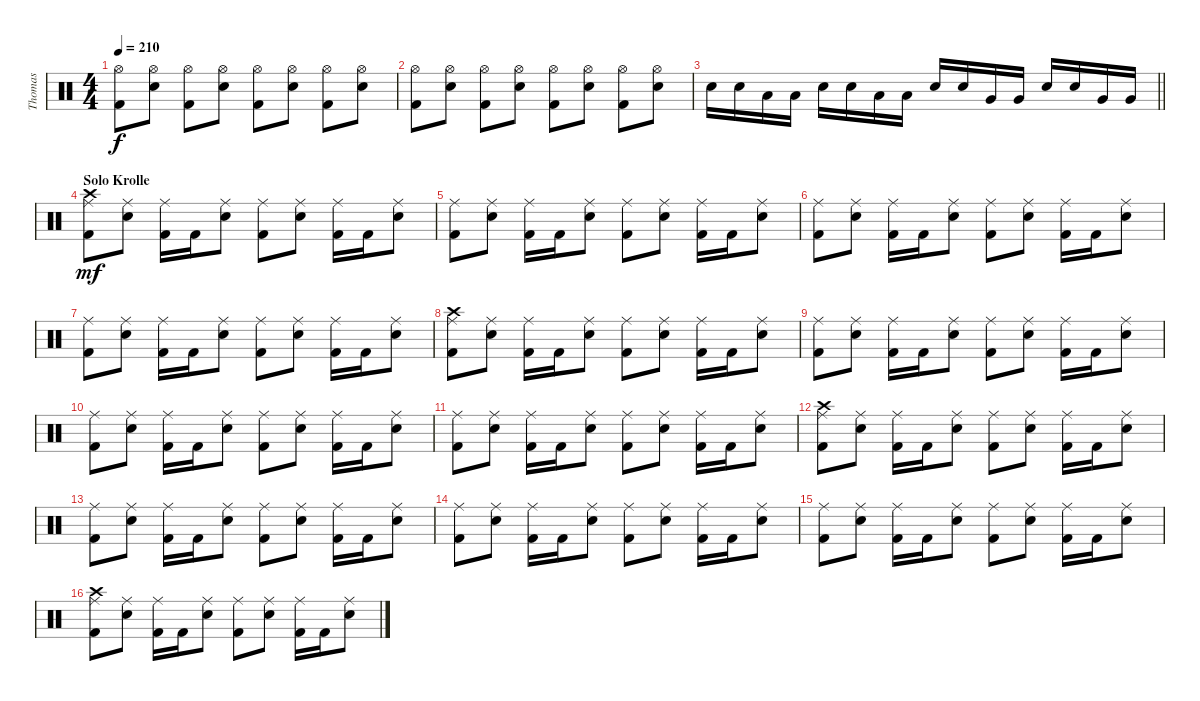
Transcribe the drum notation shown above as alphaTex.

\track ("Thomas" "Thomas") {instrument percussion}
\staff {score}
\articulation defaults
\ts (4 4)
\tempo 210
\clef neutral
\ks c
("Hi-Hat (open)" "Kick (hit) 2").8{dy f} ("Hi-Hat (open)" "Snare (hit) 2").8 ("Hi-Hat (open)" "Kick (hit) 2").8 ("Hi-Hat (open)" "Snare (hit) 2").8 ("Hi-Hat (open)" "Kick (hit) 2").8 ("Hi-Hat (open)" "Snare (hit) 2").8 ("Hi-Hat (open)" "Kick (hit) 2").8 ("Hi-Hat (open)" "Snare (hit) 2").8 |
("Hi-Hat (open)" "Kick (hit) 2").8 ("Hi-Hat (open)" "Snare (hit) 2").8 ("Hi-Hat (open)" "Kick (hit) 2").8 ("Hi-Hat (open)" "Snare (hit) 2").8 ("Hi-Hat (open)" "Kick (hit) 2").8 ("Hi-Hat (open)" "Snare (hit) 2").8 ("Hi-Hat (open)" "Kick (hit) 2").8 ("Hi-Hat (open)" "Snare (hit) 2").8 |
\barLineRight lightlight "Snare (hit) 2".16 "Snare (hit) 2".16 "Low Floor Tom (hit)".16 "Low Floor Tom (hit)".16 "Snare (hit) 2".16 "Snare (hit) 2".16 "Low Floor Tom (hit)".16 "Low Floor Tom (hit)".16 "Snare (hit) 2".16 "Snare (hit) 2".16 "Very Low Tom (hit)".16 "Very Low Tom (hit)".16 "Snare (hit) 2".16 "Snare (hit) 2".16 "Very Low Tom (hit)".16 "Very Low Tom (hit)".16
|
\section ("" "Solo Krolle")
("Ride (middle)" "Crash high (hit)" "Kick (hit) 2").8{dy mf} ("Ride (middle)" "Snare (hit) 2").8 ("Ride (middle)" "Kick (hit) 2").16 "Kick (hit) 2".16 ("Ride (middle)" "Snare (hit) 2").8 ("Ride (middle)" "Kick (hit) 2").8 ("Ride (middle)" "Snare (hit) 2").8 ("Ride (middle)" "Kick (hit) 2").16 "Kick (hit) 2".16 ("Ride (middle)" "Snare (hit) 2").8 |
("Ride (middle)" "Kick (hit) 2").8 ("Ride (middle)" "Snare (hit) 2").8 ("Ride (middle)" "Kick (hit) 2").16 "Kick (hit) 2".16 ("Ride (middle)" "Snare (hit) 2").8 ("Ride (middle)" "Kick (hit) 2").8 ("Ride (middle)" "Snare (hit) 2").8 ("Ride (middle)" "Kick (hit) 2").16 "Kick (hit) 2".16 ("Ride (middle)" "Snare (hit) 2").8 |
("Ride (middle)" "Kick (hit) 2").8 ("Ride (middle)" "Snare (hit) 2").8 ("Ride (middle)" "Kick (hit) 2").16 "Kick (hit) 2".16 ("Ride (middle)" "Snare (hit) 2").8 ("Ride (middle)" "Kick (hit) 2").8 ("Ride (middle)" "Snare (hit) 2").8 ("Ride (middle)" "Kick (hit) 2").16 "Kick (hit) 2".16 ("Ride (middle)" "Snare (hit) 2").8 |
("Ride (middle)" "Kick (hit) 2").8 ("Ride (middle)" "Snare (hit) 2").8 ("Ride (middle)" "Kick (hit) 2").16 "Kick (hit) 2".16 ("Ride (middle)" "Snare (hit) 2").8 ("Ride (middle)" "Kick (hit) 2").8 ("Ride (middle)" "Snare (hit) 2").8 ("Ride (middle)" "Kick (hit) 2").16 "Kick (hit) 2".16 ("Ride (middle)" "Snare (hit) 2").8 |
("Ride (middle)" "Crash high (hit)" "Kick (hit) 2").8 ("Ride (middle)" "Snare (hit) 2").8 ("Ride (middle)" "Kick (hit) 2").16 "Kick (hit) 2".16 ("Ride (middle)" "Snare (hit) 2").8 ("Ride (middle)" "Kick (hit) 2").8 ("Ride (middle)" "Snare (hit) 2").8 ("Ride (middle)" "Kick (hit) 2").16 "Kick (hit) 2".16 ("Ride (middle)" "Snare (hit) 2").8 |
("Ride (middle)" "Kick (hit) 2").8 ("Ride (middle)" "Snare (hit) 2").8 ("Ride (middle)" "Kick (hit) 2").16 "Kick (hit) 2".16 ("Ride (middle)" "Snare (hit) 2").8 ("Ride (middle)" "Kick (hit) 2").8 ("Ride (middle)" "Snare (hit) 2").8 ("Ride (middle)" "Kick (hit) 2").16 "Kick (hit) 2".16 ("Ride (middle)" "Snare (hit) 2").8 |
("Ride (middle)" "Kick (hit) 2").8 ("Ride (middle)" "Snare (hit) 2").8 ("Ride (middle)" "Kick (hit) 2").16 "Kick (hit) 2".16 ("Ride (middle)" "Snare (hit) 2").8 ("Ride (middle)" "Kick (hit) 2").8 ("Ride (middle)" "Snare (hit) 2").8 ("Ride (middle)" "Kick (hit) 2").16 "Kick (hit) 2".16 ("Ride (middle)" "Snare (hit) 2").8 |
("Ride (middle)" "Kick (hit) 2").8 ("Ride (middle)" "Snare (hit) 2").8 ("Ride (middle)" "Kick (hit) 2").16 "Kick (hit) 2".16 ("Ride (middle)" "Snare (hit) 2").8 ("Ride (middle)" "Kick (hit) 2").8 ("Ride (middle)" "Snare (hit) 2").8 ("Ride (middle)" "Kick (hit) 2").16 "Kick (hit) 2".16 ("Ride (middle)" "Snare (hit) 2").8 |
("Ride (middle)" "Crash high (hit)" "Kick (hit) 2").8 ("Ride (middle)" "Snare (hit) 2").8 ("Ride (middle)" "Kick (hit) 2").16 "Kick (hit) 2".16 ("Ride (middle)" "Snare (hit) 2").8 ("Ride (middle)" "Kick (hit) 2").8 ("Ride (middle)" "Snare (hit) 2").8 ("Ride (middle)" "Kick (hit) 2").16 "Kick (hit) 2".16 ("Ride (middle)" "Snare (hit) 2").8 |
("Ride (middle)" "Kick (hit) 2").8 ("Ride (middle)" "Snare (hit) 2").8 ("Ride (middle)" "Kick (hit) 2").16 "Kick (hit) 2".16 ("Ride (middle)" "Snare (hit) 2").8 ("Ride (middle)" "Kick (hit) 2").8 ("Ride (middle)" "Snare (hit) 2").8 ("Ride (middle)" "Kick (hit) 2").16 "Kick (hit) 2".16 ("Ride (middle)" "Snare (hit) 2").8 |
("Ride (middle)" "Kick (hit) 2").8 ("Ride (middle)" "Snare (hit) 2").8 ("Ride (middle)" "Kick (hit) 2").16 "Kick (hit) 2".16 ("Ride (middle)" "Snare (hit) 2").8 ("Ride (middle)" "Kick (hit) 2").8 ("Ride (middle)" "Snare (hit) 2").8 ("Ride (middle)" "Kick (hit) 2").16 "Kick (hit) 2".16 ("Ride (middle)" "Snare (hit) 2").8 |
("Ride (middle)" "Kick (hit) 2").8 ("Ride (middle)" "Snare (hit) 2").8 ("Ride (middle)" "Kick (hit) 2").16 "Kick (hit) 2".16 ("Ride (middle)" "Snare (hit) 2").8 ("Ride (middle)" "Kick (hit) 2").8 ("Ride (middle)" "Snare (hit) 2").8 ("Ride (middle)" "Kick (hit) 2").16 "Kick (hit) 2".16 ("Ride (middle)" "Snare (hit) 2").8 |
("Ride (middle)" "Crash high (hit)" "Kick (hit) 2").8 ("Ride (middle)" "Snare (hit) 2").8 ("Ride (middle)" "Kick (hit) 2").16 "Kick (hit) 2".16 ("Ride (middle)" "Snare (hit) 2").8 ("Ride (middle)" "Kick (hit) 2").8 ("Ride (middle)" "Snare (hit) 2").8 ("Ride (middle)" "Kick (hit) 2").16 "Kick (hit) 2".16 ("Ride (middle)" "Snare (hit) 2").8
